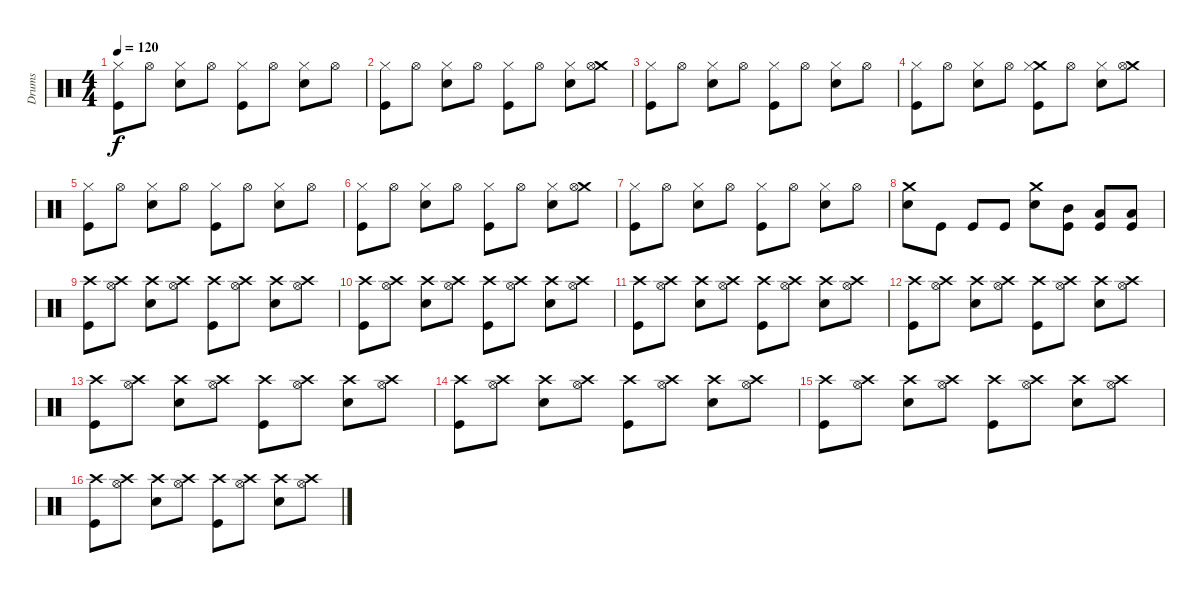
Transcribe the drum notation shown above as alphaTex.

\track ("Drums" "Drums") {instrument percussion}
\staff {score}
\articulation defaults
\ts (4 4)
\tempo 120
\clef neutral
\ks c
("Hi-Hat (closed)" "Kick (hit)").8{dy f} "Hi-Hat (open)".8 ("Snare (hit) 2" "Hi-Hat (closed)").8 "Hi-Hat (open)".8 ("Hi-Hat (closed)" "Kick (hit)").8 "Hi-Hat (open)".8 ("Snare (hit) 2" "Hi-Hat (closed)").8 "Hi-Hat (open)".8 |
("Hi-Hat (closed)" "Kick (hit)").8 "Hi-Hat (open)".8 ("Snare (hit) 2" "Hi-Hat (closed)").8 "Hi-Hat (open)".8 ("Hi-Hat (closed)" "Kick (hit)").8 "Hi-Hat (open)".8 ("Snare (hit) 2" "Hi-Hat (closed)").8 ("Crash medium (hit)" "Hi-Hat (open)").8 |
("Hi-Hat (closed)" "Kick (hit)").8 "Hi-Hat (open)".8 ("Snare (hit) 2" "Hi-Hat (closed)").8 "Hi-Hat (open)".8 ("Hi-Hat (closed)" "Kick (hit)").8 "Hi-Hat (open)".8 ("Snare (hit) 2" "Hi-Hat (closed)").8 "Hi-Hat (open)".8 |
("Hi-Hat (closed)" "Kick (hit)").8 "Hi-Hat (open)".8 ("Snare (hit) 2" "Hi-Hat (closed)").8 "Hi-Hat (open)".8 ("Crash medium (hit)" "Hi-Hat (closed)" "Kick (hit)").8 "Hi-Hat (open)".8 ("Snare (hit) 2" "Hi-Hat (closed)").8 ("Crash medium (hit)" "Hi-Hat (open)").8 |
("Hi-Hat (closed)" "Kick (hit)").8 "Hi-Hat (open)".8 ("Snare (hit) 2" "Hi-Hat (closed)").8 "Hi-Hat (open)".8 ("Hi-Hat (closed)" "Kick (hit)").8 "Hi-Hat (open)".8 ("Snare (hit) 2" "Hi-Hat (closed)").8 "Hi-Hat (open)".8 |
("Hi-Hat (closed)" "Kick (hit)").8 "Hi-Hat (open)".8 ("Snare (hit) 2" "Hi-Hat (closed)").8 "Hi-Hat (open)".8 ("Hi-Hat (closed)" "Kick (hit)").8 "Hi-Hat (open)".8 ("Snare (hit) 2" "Hi-Hat (closed)").8 ("Crash medium (hit)" "Hi-Hat (open)").8 |
("Hi-Hat (closed)" "Kick (hit)").8 "Hi-Hat (open)".8 ("Snare (hit) 2" "Hi-Hat (closed)").8 "Hi-Hat (open)".8 ("Hi-Hat (closed)" "Kick (hit)").8 "Hi-Hat (open)".8 ("Snare (hit) 2" "Hi-Hat (closed)").8 "Hi-Hat (open)".8 |
("Crash medium (hit)" "Snare (hit) 2").8 "Kick (hit)".8 "Kick (hit)".8 "Kick (hit)".8 ("Crash medium (hit)" "Snare (hit) 2").8 ("Mid Tom (hit)" "Kick (hit)").8 ("Low Tom (hit)" "Kick (hit)").8 ("Low Tom (hit)" "Kick (hit)").8 |
("Crash high (hit)" "Kick (hit)").8 ("Crash high (hit)" "Hi-Hat (open)").8 ("Crash high (hit)" "Snare (hit) 2").8 ("Crash high (hit)" "Hi-Hat (open)").8 ("Crash high (hit)" "Kick (hit)").8 ("Crash high (hit)" "Hi-Hat (open)").8 ("Crash high (hit)" "Snare (hit) 2").8 ("Crash high (hit)" "Hi-Hat (open)").8 |
("Crash high (hit)" "Kick (hit)").8 ("Crash high (hit)" "Hi-Hat (open)").8 ("Crash high (hit)" "Snare (hit) 2").8 ("Crash high (hit)" "Hi-Hat (open)").8 ("Crash high (hit)" "Kick (hit)").8 ("Crash high (hit)" "Hi-Hat (open)").8 ("Crash high (hit)" "Snare (hit) 2").8 ("Crash high (hit)" "Hi-Hat (open)").8 |
("Crash high (hit)" "Kick (hit)").8 ("Crash high (hit)" "Hi-Hat (open)").8 ("Crash high (hit)" "Snare (hit) 2").8 ("Crash high (hit)" "Hi-Hat (open)").8 ("Crash high (hit)" "Kick (hit)").8 ("Crash high (hit)" "Hi-Hat (open)").8 ("Crash high (hit)" "Snare (hit) 2").8 ("Crash high (hit)" "Hi-Hat (open)").8 |
("Crash high (hit)" "Kick (hit)").8 ("Crash high (hit)" "Hi-Hat (open)").8 ("Crash high (hit)" "Snare (hit) 2").8 ("Crash high (hit)" "Hi-Hat (open)").8 ("Crash high (hit)" "Kick (hit)").8 ("Crash high (hit)" "Hi-Hat (open)").8 ("Crash high (hit)" "Snare (hit) 2").8 ("Crash high (hit)" "Hi-Hat (open)").8 |
("Crash high (hit)" "Kick (hit)").8 ("Crash high (hit)" "Hi-Hat (open)").8 ("Crash high (hit)" "Snare (hit) 2").8 ("Crash high (hit)" "Hi-Hat (open)").8 ("Crash high (hit)" "Kick (hit)").8 ("Crash high (hit)" "Hi-Hat (open)").8 ("Crash high (hit)" "Snare (hit) 2").8 ("Crash high (hit)" "Hi-Hat (open)").8 |
("Crash high (hit)" "Kick (hit)").8 ("Crash high (hit)" "Hi-Hat (open)").8 ("Crash high (hit)" "Snare (hit) 2").8 ("Crash high (hit)" "Hi-Hat (open)").8 ("Crash high (hit)" "Kick (hit)").8 ("Crash high (hit)" "Hi-Hat (open)").8 ("Crash high (hit)" "Snare (hit) 2").8 ("Crash high (hit)" "Hi-Hat (open)").8 |
("Crash high (hit)" "Kick (hit)").8 ("Crash high (hit)" "Hi-Hat (open)").8 ("Crash high (hit)" "Snare (hit) 2").8 ("Crash high (hit)" "Hi-Hat (open)").8 ("Crash high (hit)" "Kick (hit)").8 ("Crash high (hit)" "Hi-Hat (open)").8 ("Crash high (hit)" "Snare (hit) 2").8 ("Crash high (hit)" "Hi-Hat (open)").8 |
("Crash high (hit)" "Kick (hit)").8 ("Crash high (hit)" "Hi-Hat (open)").8 ("Crash high (hit)" "Snare (hit) 2").8 ("Crash high (hit)" "Hi-Hat (open)").8 ("Crash high (hit)" "Kick (hit)").8 ("Crash high (hit)" "Hi-Hat (open)").8 ("Crash high (hit)" "Snare (hit) 2").8 ("Crash high (hit)" "Hi-Hat (open)").8
